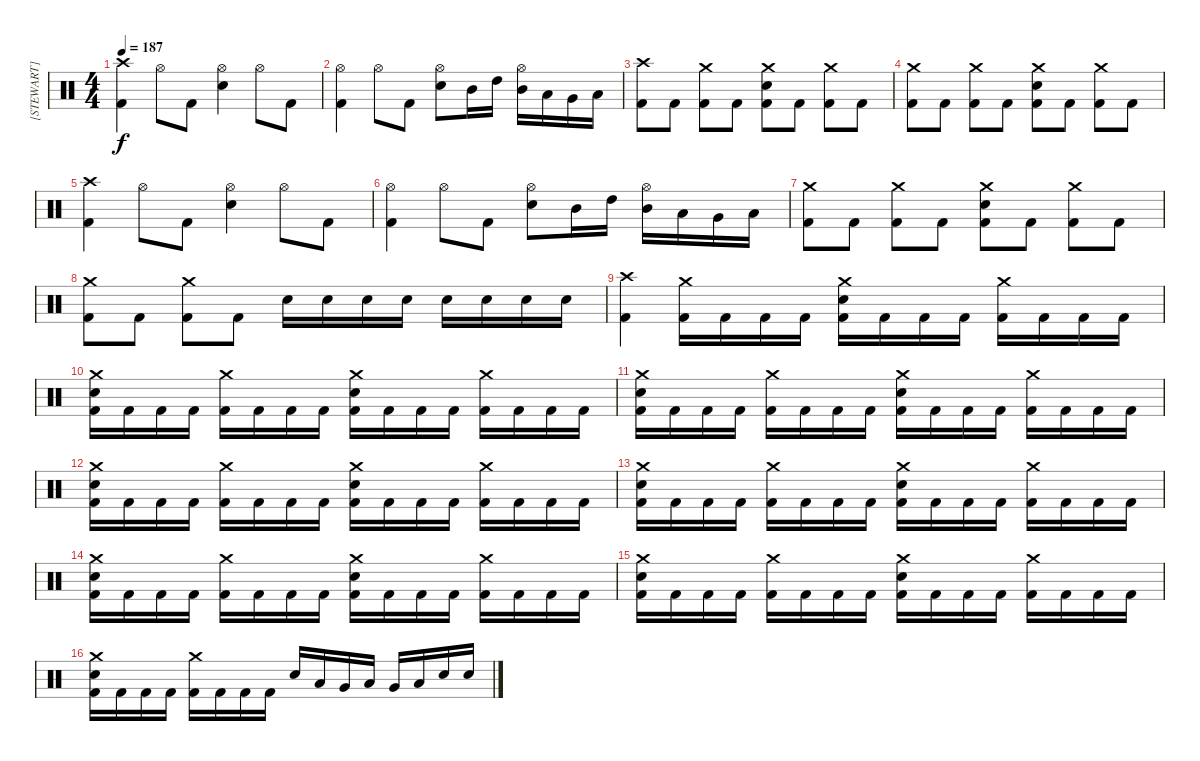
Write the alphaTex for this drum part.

\track ("[STEWART]" "[STEWART]") {instrument percussion}
\staff {score}
\articulation defaults
\ts (4 4)
\tempo 187
\clef neutral
\ks c
("Crash high (hit)" "Kick (hit) 2").4{dy f} "Hi-Hat (open)".8 "Kick (hit) 2".8 ("Hi-Hat (open)" "Electric Snare (hit)").4 "Hi-Hat (open)".8 "Kick (hit) 2".8 |
("Hi-Hat (open)" "Kick (hit) 2").4 "Hi-Hat (open)".8 "Kick (hit) 2".8 ("Hi-Hat (open)" "Electric Snare (hit)").8 "Mid Tom (hit)".16 "High Tom (hit)".16 ("Hi-Hat (open)" "Mid Tom (hit)").16 "Low Tom (hit)".16 "Very Low Tom (hit)".16 "Low Floor Tom (hit)".16 |
("Crash high (hit)" "Kick (hit) 2").8 "Kick (hit) 2".8 ("Crash medium (hit)" "Kick (hit) 2").8 "Kick (hit) 2".8 ("Crash medium (hit)" "Electric Snare (hit)" "Kick (hit) 2").8 "Kick (hit) 2".8 ("Crash medium (hit)" "Kick (hit) 2").8 "Kick (hit) 2".8 |
("Crash medium (hit)" "Kick (hit) 2").8 "Kick (hit) 2".8 ("Crash medium (hit)" "Kick (hit) 2").8 "Kick (hit) 2".8 ("Crash medium (hit)" "Electric Snare (hit)" "Kick (hit) 2").8 "Kick (hit) 2".8 ("Crash medium (hit)" "Kick (hit) 2").8 "Kick (hit) 2".8 |
("Crash high (hit)" "Kick (hit) 2").4 "Hi-Hat (open)".8 "Kick (hit) 2".8 ("Hi-Hat (open)" "Electric Snare (hit)").4 "Hi-Hat (open)".8 "Kick (hit) 2".8 |
("Hi-Hat (open)" "Kick (hit) 2").4 "Hi-Hat (open)".8 "Kick (hit) 2".8 ("Hi-Hat (open)" "Electric Snare (hit)").8 "Mid Tom (hit)".16 "High Tom (hit)".16 ("Hi-Hat (open)" "Mid Tom (hit)").16 "Low Tom (hit)".16 "Very Low Tom (hit)".16 "Low Floor Tom (hit)".16 |
("Crash medium (hit)" "Kick (hit) 2").8 "Kick (hit) 2".8 ("Crash medium (hit)" "Kick (hit) 2").8 "Kick (hit) 2".8 ("Crash medium (hit)" "Electric Snare (hit)" "Kick (hit) 2").8 "Kick (hit) 2".8 ("Crash medium (hit)" "Kick (hit) 2").8 "Kick (hit) 2".8 |
("Crash medium (hit)" "Kick (hit) 2").8 "Kick (hit) 2".8 ("Crash medium (hit)" "Kick (hit) 2").8 "Kick (hit) 2".8 "Electric Snare (hit)".16 "Electric Snare (hit)".16 "Electric Snare (hit)".16 "Electric Snare (hit)".16 "Electric Snare (hit)".16 "Electric Snare (hit)".16 "Electric Snare (hit)".16 "Electric Snare (hit)".16 |
("Crash high (hit)" "Kick (hit) 2").4 ("Crash medium (hit)" "Kick (hit) 2").16 "Kick (hit) 2".16 "Kick (hit) 2".16 "Kick (hit) 2".16 ("Crash medium (hit)" "Electric Snare (hit)" "Kick (hit) 2").16 "Kick (hit) 2".16 "Kick (hit) 2".16 "Kick (hit) 2".16 ("Crash medium (hit)" "Kick (hit) 2").16 "Kick (hit) 2".16 "Kick (hit) 2".16 "Kick (hit) 2".16 |
("Crash medium (hit)" "Electric Snare (hit)" "Kick (hit) 2").16 "Kick (hit) 2".16 "Kick (hit) 2".16 "Kick (hit) 2".16 ("Crash medium (hit)" "Kick (hit) 2").16 "Kick (hit) 2".16 "Kick (hit) 2".16 "Kick (hit) 2".16 ("Crash medium (hit)" "Electric Snare (hit)" "Kick (hit) 2").16 "Kick (hit) 2".16 "Kick (hit) 2".16 "Kick (hit) 2".16 ("Crash medium (hit)" "Kick (hit) 2").16 "Kick (hit) 2".16 "Kick (hit) 2".16 "Kick (hit) 2".16 |
("Crash medium (hit)" "Electric Snare (hit)" "Kick (hit) 2").16 "Kick (hit) 2".16 "Kick (hit) 2".16 "Kick (hit) 2".16 ("Crash medium (hit)" "Kick (hit) 2").16 "Kick (hit) 2".16 "Kick (hit) 2".16 "Kick (hit) 2".16 ("Crash medium (hit)" "Electric Snare (hit)" "Kick (hit) 2").16 "Kick (hit) 2".16 "Kick (hit) 2".16 "Kick (hit) 2".16 ("Crash medium (hit)" "Kick (hit) 2").16 "Kick (hit) 2".16 "Kick (hit) 2".16 "Kick (hit) 2".16 |
("Crash medium (hit)" "Electric Snare (hit)" "Kick (hit) 2").16 "Kick (hit) 2".16 "Kick (hit) 2".16 "Kick (hit) 2".16 ("Crash medium (hit)" "Kick (hit) 2").16 "Kick (hit) 2".16 "Kick (hit) 2".16 "Kick (hit) 2".16 ("Crash medium (hit)" "Electric Snare (hit)" "Kick (hit) 2").16 "Kick (hit) 2".16 "Kick (hit) 2".16 "Kick (hit) 2".16 ("Crash medium (hit)" "Kick (hit) 2").16 "Kick (hit) 2".16 "Kick (hit) 2".16 "Kick (hit) 2".16 |
("Crash medium (hit)" "Electric Snare (hit)" "Kick (hit) 2").16 "Kick (hit) 2".16 "Kick (hit) 2".16 "Kick (hit) 2".16 ("Crash medium (hit)" "Kick (hit) 2").16 "Kick (hit) 2".16 "Kick (hit) 2".16 "Kick (hit) 2".16 ("Crash medium (hit)" "Electric Snare (hit)" "Kick (hit) 2").16 "Kick (hit) 2".16 "Kick (hit) 2".16 "Kick (hit) 2".16 ("Crash medium (hit)" "Kick (hit) 2").16 "Kick (hit) 2".16 "Kick (hit) 2".16 "Kick (hit) 2".16 |
("Crash medium (hit)" "Electric Snare (hit)" "Kick (hit) 2").16 "Kick (hit) 2".16 "Kick (hit) 2".16 "Kick (hit) 2".16 ("Crash medium (hit)" "Kick (hit) 2").16 "Kick (hit) 2".16 "Kick (hit) 2".16 "Kick (hit) 2".16 ("Crash medium (hit)" "Electric Snare (hit)" "Kick (hit) 2").16 "Kick (hit) 2".16 "Kick (hit) 2".16 "Kick (hit) 2".16 ("Crash medium (hit)" "Kick (hit) 2").16 "Kick (hit) 2".16 "Kick (hit) 2".16 "Kick (hit) 2".16 |
("Crash medium (hit)" "Electric Snare (hit)" "Kick (hit) 2").16 "Kick (hit) 2".16 "Kick (hit) 2".16 "Kick (hit) 2".16 ("Crash medium (hit)" "Kick (hit) 2").16 "Kick (hit) 2".16 "Kick (hit) 2".16 "Kick (hit) 2".16 ("Crash medium (hit)" "Electric Snare (hit)" "Kick (hit) 2").16 "Kick (hit) 2".16 "Kick (hit) 2".16 "Kick (hit) 2".16 ("Crash medium (hit)" "Kick (hit) 2").16 "Kick (hit) 2".16 "Kick (hit) 2".16 "Kick (hit) 2".16 |
("Crash medium (hit)" "Electric Snare (hit)" "Kick (hit) 2").16 "Kick (hit) 2".16 "Kick (hit) 2".16 "Kick (hit) 2".16 ("Crash medium (hit)" "Kick (hit) 2").16 "Kick (hit) 2".16 "Kick (hit) 2".16 "Kick (hit) 2".16 "Electric Snare (hit)".16 "Low Tom (hit)".16 "Very Low Tom (hit)".16 "Low Floor Tom (hit)".16 "Very Low Tom (hit)".16 "Low Tom (hit)".16 "Electric Snare (hit)".16 "Electric Snare (hit)".16
